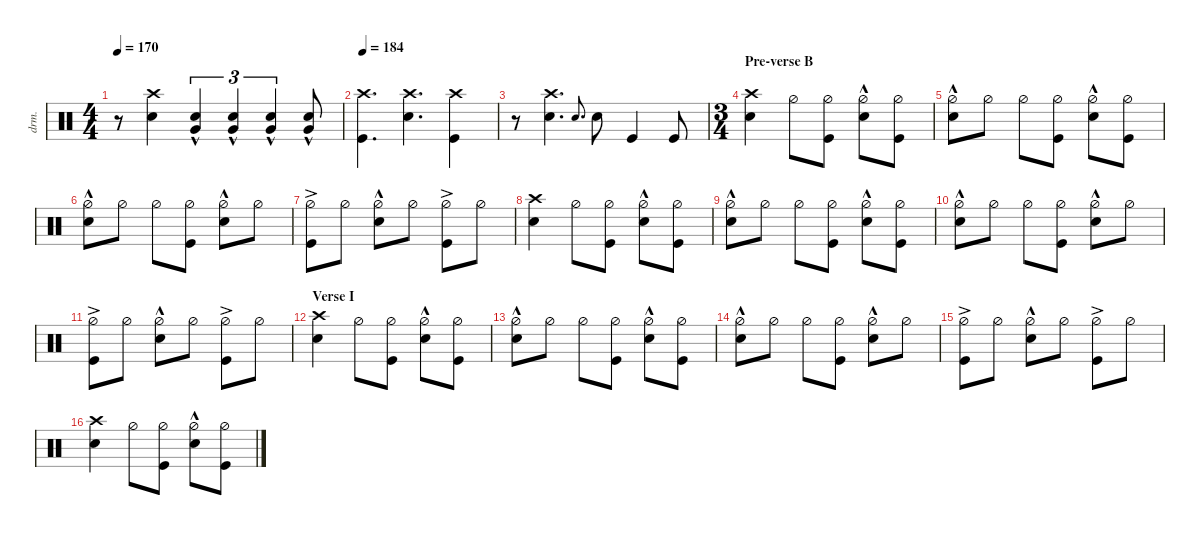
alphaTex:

\defaultSystemsLayout 4
\hideDynamics
\bracketExtendMode nobrackets
\otherSystemsTrackNameOrientation horizontal
\track ("Drums" "drm.") {defaultSystemsLayout 4 multiBarRest instrument percussion}
\staff {score}
\articulation defaults
\ts (4 4)
\tempo 170
\clef neutral
\ks c
r.8{dy f} ("Snare (hit) 2" "Crash high (hit)").4 ("Snare (hit) 2" "Very Low Tom (hit)"{hac}).4{tu (3 2)} ("Snare (hit) 2" "Very Low Tom (hit)"{hac}).4{tu (3 2)} ("Snare (hit) 2" "Very Low Tom (hit)"{hac}).4{tu (3 2)} ("Snare (hit) 2" "Very Low Tom (hit)"{hac}).8 |
\tempo 184
("Crash high (hit)" "Kick (hit)").4{d} ("Snare (hit) 2" "Crash high (hit)").4{d} ("Crash high (hit)" "Kick (hit)").4 |
r.8 ("Snare (hit) 2" "Crash high (hit)").4{d} "Snare (hit) 2".8{d gr onbeat} "Snare (hit) 2".8 "Kick (hit)".4 "Kick (hit)".8 |
\ts (3 4)
\beaming (8 2 2 2 2)
\section ("" "Pre-verse B")
("Snare (hit) 2" "Crash high (hit)").4 "Hi-Hat (half)".8 ("Hi-Hat (half)" "Kick (hit)").8 ("Hi-Hat (half)"{hac} "Snare (hit) 2").8 ("Hi-Hat (half)" "Kick (hit)").8 |
("Hi-Hat (half)"{hac} "Snare (hit) 2").8 "Hi-Hat (half)".8 "Hi-Hat (half)".8 ("Hi-Hat (half)" "Kick (hit)").8 ("Hi-Hat (half)"{hac} "Snare (hit) 2").8 ("Hi-Hat (half)" "Kick (hit)").8 |
("Hi-Hat (half)"{hac} "Snare (hit) 2").8 "Hi-Hat (half)".8 "Hi-Hat (half)".8 ("Hi-Hat (half)" "Kick (hit)").8 ("Hi-Hat (half)"{hac} "Snare (hit) 2").8 "Hi-Hat (half)".8 |
("Hi-Hat (half)"{ac} "Kick (hit)").8 "Hi-Hat (half)".8 ("Hi-Hat (half)"{hac} "Snare (hit) 2").8 "Hi-Hat (half)".8 ("Hi-Hat (half)"{ac} "Kick (hit)").8 "Hi-Hat (half)".8 |
("Snare (hit) 2" "Crash high (hit)").4 "Hi-Hat (half)".8 ("Hi-Hat (half)" "Kick (hit)").8 ("Hi-Hat (half)"{hac} "Snare (hit) 2").8 ("Hi-Hat (half)" "Kick (hit)").8 |
("Hi-Hat (half)"{hac} "Snare (hit) 2").8 "Hi-Hat (half)".8 "Hi-Hat (half)".8 ("Hi-Hat (half)" "Kick (hit)").8 ("Hi-Hat (half)"{hac} "Snare (hit) 2").8 ("Hi-Hat (half)" "Kick (hit)").8 |
("Hi-Hat (half)"{hac} "Snare (hit) 2").8 "Hi-Hat (half)".8 "Hi-Hat (half)".8 ("Hi-Hat (half)" "Kick (hit)").8 ("Hi-Hat (half)"{hac} "Snare (hit) 2").8 "Hi-Hat (half)".8 |
("Hi-Hat (half)"{ac} "Kick (hit)").8 "Hi-Hat (half)".8 ("Hi-Hat (half)"{hac} "Snare (hit) 2").8 "Hi-Hat (half)".8 ("Hi-Hat (half)"{ac} "Kick (hit)").8 "Hi-Hat (half)".8 |
\section ("" "Verse I")
("Snare (hit) 2" "Crash high (hit)").4 "Hi-Hat (half)".8 ("Hi-Hat (half)" "Kick (hit)").8 ("Hi-Hat (half)"{hac} "Snare (hit) 2").8 ("Hi-Hat (half)" "Kick (hit)").8 |
("Hi-Hat (half)"{hac} "Snare (hit) 2").8 "Hi-Hat (half)".8 "Hi-Hat (half)".8 ("Hi-Hat (half)" "Kick (hit)").8 ("Hi-Hat (half)"{hac} "Snare (hit) 2").8 ("Hi-Hat (half)" "Kick (hit)").8 |
("Hi-Hat (half)"{hac} "Snare (hit) 2").8 "Hi-Hat (half)".8 "Hi-Hat (half)".8 ("Hi-Hat (half)" "Kick (hit)").8 ("Hi-Hat (half)"{hac} "Snare (hit) 2").8 "Hi-Hat (half)".8 |
("Hi-Hat (half)"{ac} "Kick (hit)").8 "Hi-Hat (half)".8 ("Hi-Hat (half)"{hac} "Snare (hit) 2").8 "Hi-Hat (half)".8 ("Hi-Hat (half)"{ac} "Kick (hit)").8 "Hi-Hat (half)".8 |
("Snare (hit) 2" "Crash high (hit)").4 "Hi-Hat (half)".8 ("Hi-Hat (half)" "Kick (hit)").8 ("Hi-Hat (half)"{hac} "Snare (hit) 2").8 ("Hi-Hat (half)" "Kick (hit)").8
